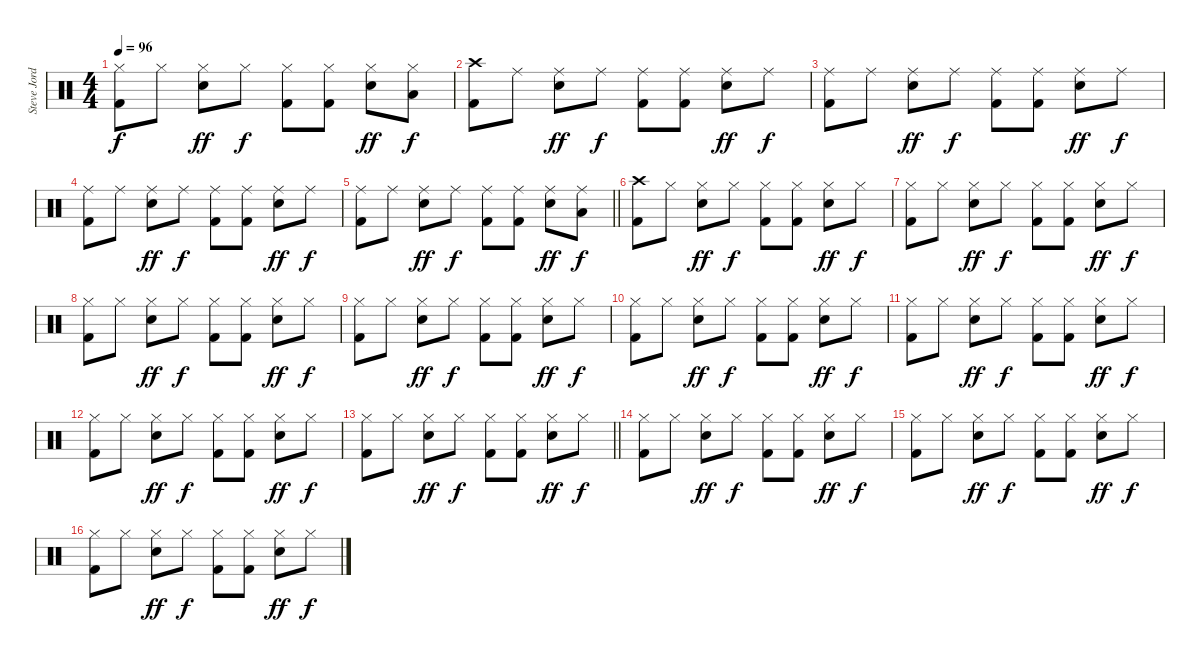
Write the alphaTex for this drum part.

\track ("Steve Jordan" "Steve Jord") {instrument percussion}
\staff {score}
\articulation defaults
\ts (4 4)
\tempo 96
\clef neutral
\ks c
("Hi-Hat (closed)" "Kick (hit) 2").8{dy f} "Hi-Hat (closed)".8 ("Hi-Hat (closed)" "Snare (hit) 2").8{dy ff} "Hi-Hat (closed)".8{dy f} ("Hi-Hat (closed)" "Kick (hit) 2").8 ("Hi-Hat (closed)" "Kick (hit) 2").8 ("Hi-Hat (closed)" "Snare (hit) 2").8{dy ff} ("Hi-Hat (closed)" "Low Tom (hit)").8{dy f} |
("Crash high (hit)" "Kick (hit) 2").8 "Ride (middle)".8 ("Ride (middle)" "Snare (hit) 2").8{dy ff} "Ride (middle)".8{dy f} ("Ride (middle)" "Kick (hit) 2").8 ("Ride (middle)" "Kick (hit) 2").8 ("Ride (middle)" "Snare (hit) 2").8{dy ff} "Ride (middle)".8{dy f} |
("Ride (middle)" "Kick (hit) 2").8 "Ride (middle)".8 ("Ride (middle)" "Snare (hit) 2").8{dy ff} "Ride (middle)".8{dy f} ("Ride (middle)" "Kick (hit) 2").8 ("Ride (middle)" "Kick (hit) 2").8 ("Ride (middle)" "Snare (hit) 2").8{dy ff} "Ride (middle)".8{dy f} |
("Ride (middle)" "Kick (hit) 2").8 "Ride (middle)".8 ("Ride (middle)" "Snare (hit) 2").8{dy ff} "Ride (middle)".8{dy f} ("Ride (middle)" "Kick (hit) 2").8 ("Ride (middle)" "Kick (hit) 2").8 ("Ride (middle)" "Snare (hit) 2").8{dy ff} "Ride (middle)".8{dy f} |
\barLineRight lightlight
("Ride (middle)" "Kick (hit) 2").8 "Ride (middle)".8 ("Ride (middle)" "Snare (hit) 2").8{dy ff} "Ride (middle)".8{dy f} ("Ride (middle)" "Kick (hit) 2").8 ("Ride (middle)" "Kick (hit) 2").8 ("Ride (middle)" "Snare (hit) 2").8{dy ff} ("Ride (middle)" "Low Tom (hit)").8{dy f} |
("Crash high (hit)" "Kick (hit) 2").8 "Hi-Hat (closed)".8 ("Hi-Hat (closed)" "Snare (hit) 2").8{dy ff} "Hi-Hat (closed)".8{dy f} ("Hi-Hat (closed)" "Kick (hit) 2").8 ("Hi-Hat (closed)" "Kick (hit) 2").8 ("Hi-Hat (closed)" "Snare (hit) 2").8{dy ff} "Hi-Hat (closed)".8{dy f} |
("Hi-Hat (closed)" "Kick (hit) 2").8 "Hi-Hat (closed)".8 ("Hi-Hat (closed)" "Snare (hit) 2").8{dy ff} "Hi-Hat (closed)".8{dy f} ("Hi-Hat (closed)" "Kick (hit) 2").8 ("Hi-Hat (closed)" "Kick (hit) 2").8 ("Hi-Hat (closed)" "Snare (hit) 2").8{dy ff} "Hi-Hat (closed)".8{dy f} |
("Hi-Hat (closed)" "Kick (hit) 2").8 "Hi-Hat (closed)".8 ("Hi-Hat (closed)" "Snare (hit) 2").8{dy ff} "Hi-Hat (closed)".8{dy f} ("Hi-Hat (closed)" "Kick (hit) 2").8 ("Hi-Hat (closed)" "Kick (hit) 2").8 ("Hi-Hat (closed)" "Snare (hit) 2").8{dy ff} "Hi-Hat (closed)".8{dy f} |
("Hi-Hat (closed)" "Kick (hit) 2").8 "Hi-Hat (closed)".8 ("Hi-Hat (closed)" "Snare (hit) 2").8{dy ff} "Hi-Hat (closed)".8{dy f} ("Hi-Hat (closed)" "Kick (hit) 2").8 ("Hi-Hat (closed)" "Kick (hit) 2").8 ("Hi-Hat (closed)" "Snare (hit) 2").8{dy ff} "Hi-Hat (closed)".8{dy f} |
("Hi-Hat (closed)" "Kick (hit) 2").8 "Hi-Hat (closed)".8 ("Hi-Hat (closed)" "Snare (hit) 2").8{dy ff} "Hi-Hat (closed)".8{dy f} ("Hi-Hat (closed)" "Kick (hit) 2").8 ("Hi-Hat (closed)" "Kick (hit) 2").8 ("Hi-Hat (closed)" "Snare (hit) 2").8{dy ff} "Hi-Hat (closed)".8{dy f} |
("Hi-Hat (closed)" "Kick (hit) 2").8 "Hi-Hat (closed)".8 ("Hi-Hat (closed)" "Snare (hit) 2").8{dy ff} "Hi-Hat (closed)".8{dy f} ("Hi-Hat (closed)" "Kick (hit) 2").8 ("Hi-Hat (closed)" "Kick (hit) 2").8 ("Hi-Hat (closed)" "Snare (hit) 2").8{dy ff} "Hi-Hat (closed)".8{dy f} |
("Hi-Hat (closed)" "Kick (hit) 2").8 "Hi-Hat (closed)".8 ("Hi-Hat (closed)" "Snare (hit) 2").8{dy ff} "Hi-Hat (closed)".8{dy f} ("Hi-Hat (closed)" "Kick (hit) 2").8 ("Hi-Hat (closed)" "Kick (hit) 2").8 ("Hi-Hat (closed)" "Snare (hit) 2").8{dy ff} "Hi-Hat (closed)".8{dy f} |
\barLineRight lightlight
("Hi-Hat (closed)" "Kick (hit) 2").8 "Hi-Hat (closed)".8 ("Hi-Hat (closed)" "Snare (hit) 2").8{dy ff} "Hi-Hat (closed)".8{dy f} ("Hi-Hat (closed)" "Kick (hit) 2").8 ("Hi-Hat (closed)" "Kick (hit) 2").8 ("Hi-Hat (closed)" "Snare (hit) 2").8{dy ff} "Hi-Hat (closed)".8{dy f} |
("Hi-Hat (closed)" "Kick (hit) 2").8 "Hi-Hat (closed)".8 ("Hi-Hat (closed)" "Snare (hit) 2").8{dy ff} "Hi-Hat (closed)".8{dy f} ("Hi-Hat (closed)" "Kick (hit) 2").8 ("Hi-Hat (closed)" "Kick (hit) 2").8 ("Hi-Hat (closed)" "Snare (hit) 2").8{dy ff} "Hi-Hat (closed)".8{dy f} |
("Hi-Hat (closed)" "Kick (hit) 2").8 "Hi-Hat (closed)".8 ("Hi-Hat (closed)" "Snare (hit) 2").8{dy ff} "Hi-Hat (closed)".8{dy f} ("Hi-Hat (closed)" "Kick (hit) 2").8 ("Hi-Hat (closed)" "Kick (hit) 2").8 ("Hi-Hat (closed)" "Snare (hit) 2").8{dy ff} "Hi-Hat (closed)".8{dy f} |
("Hi-Hat (closed)" "Kick (hit) 2").8 "Hi-Hat (closed)".8 ("Hi-Hat (closed)" "Snare (hit) 2").8{dy ff} "Hi-Hat (closed)".8{dy f} ("Hi-Hat (closed)" "Kick (hit) 2").8 ("Hi-Hat (closed)" "Kick (hit) 2").8 ("Hi-Hat (closed)" "Snare (hit) 2").8{dy ff} "Hi-Hat (closed)".8{dy f}
